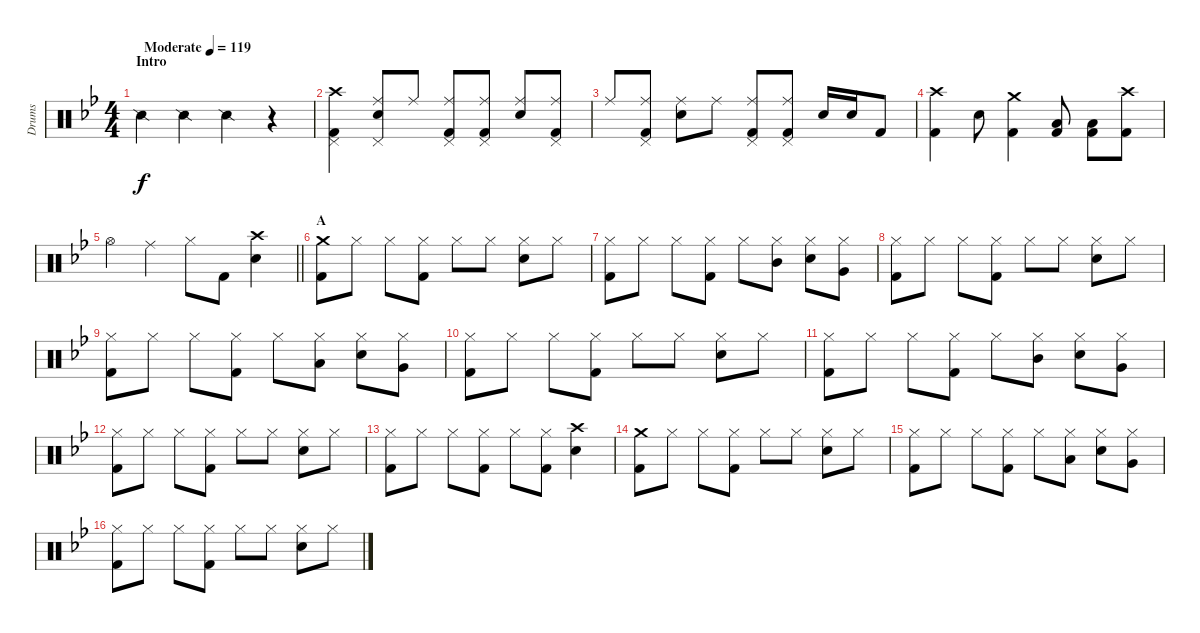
\track ("Drums" "Drums") {instrument percussion}
\staff {score}
\articulation defaults
\ts (4 4)
\section ("" "Intro")
\tempo (119 "Moderate")
\clef neutral
\ks bb "Snare (side stick) 2".4{dy f} "Snare (side stick) 2".4 "Snare (side stick) 2".4
r.4 |
("Crash high (hit)" "Pedal Hi-Hat (hit)" "Kick (hit) 2").4 ("Ride (middle)" "Pedal Hi-Hat (hit)" "Snare (hit) 2").8 "Ride (middle)".8 ("Ride (middle)" "Pedal Hi-Hat (hit)" "Kick (hit) 2").8 ("Ride (middle)" "Pedal Hi-Hat (hit)" "Kick (hit) 2").8 ("Ride (middle)" "Snare (hit) 2").8 ("Ride (middle)" "Pedal Hi-Hat (hit)" "Kick (hit) 2").8 |
"Ride (middle)".8 ("Ride (middle)" "Pedal Hi-Hat (hit)" "Kick (hit) 2").8 ("Ride (middle)" "Snare (hit) 2").8 "Ride (middle)".8 ("Ride (middle)" "Pedal Hi-Hat (hit)" "Kick (hit) 2").8 ("Ride (middle)" "Pedal Hi-Hat (hit)" "Kick (hit) 2").8 "Snare (hit) 2".16 "Snare (hit) 2".16 "Kick (hit) 2".8 |
("Crash high (hit)" "Kick (hit) 2").4 "Snare (hit) 2".8 ("Crash medium (hit)" "Kick (hit) 2").4 ("Low Tom (hit)" "Kick (hit) 2").8 ("Low Tom (hit)" "Kick (hit) 2").8 ("Crash high (hit)" "Kick (hit) 2").8 |
\barLineRight lightlight "Hi-Hat (open)".4 "Ride (middle)".4 "Hi-Hat (closed)".8 "Kick (hit) 2".8
("Crash high (hit)" "Snare (hit) 2").4 |
\section ("" "A")
("Crash medium (hit)" "Kick (hit) 2").8 "Hi-Hat (closed)".8 "Hi-Hat (closed)".8 ("Hi-Hat (closed)" "Kick (hit) 2").8 "Hi-Hat (closed)".8 "Hi-Hat (closed)".8 ("Hi-Hat (closed)" "Snare (hit) 2").8 "Hi-Hat (closed)".8 |
("Hi-Hat (closed)" "Kick (hit) 2").8 "Hi-Hat (closed)".8 "Hi-Hat (closed)".8 ("Hi-Hat (closed)" "Kick (hit) 2").8 "Hi-Hat (closed)".8 ("Mid Tom (hit)" "Hi-Hat (closed)").8 ("Hi-Hat (closed)" "Snare (hit) 2").8 ("Very Low Tom (hit)" "Hi-Hat (closed)").8 |
("Hi-Hat (closed)" "Kick (hit) 2").8 "Hi-Hat (closed)".8 "Hi-Hat (closed)".8 ("Hi-Hat (closed)" "Kick (hit) 2").8 "Hi-Hat (closed)".8 "Hi-Hat (closed)".8 ("Hi-Hat (closed)" "Snare (hit) 2").8 "Hi-Hat (closed)".8 |
("Hi-Hat (closed)" "Kick (hit) 2").8 "Hi-Hat (closed)".8 "Hi-Hat (closed)".8 ("Hi-Hat (closed)" "Kick (hit) 2").8 "Hi-Hat (closed)".8 ("Low Tom (hit)" "Hi-Hat (closed)").8 ("Hi-Hat (closed)" "Snare (hit) 2").8 ("Very Low Tom (hit)" "Hi-Hat (closed)").8 |
("Hi-Hat (closed)" "Kick (hit) 2").8 "Hi-Hat (closed)".8 "Hi-Hat (closed)".8 ("Hi-Hat (closed)" "Kick (hit) 2").8 "Hi-Hat (closed)".8 "Hi-Hat (closed)".8 ("Hi-Hat (closed)" "Snare (hit) 2").8 "Hi-Hat (closed)".8 |
("Hi-Hat (closed)" "Kick (hit) 2").8 "Hi-Hat (closed)".8 "Hi-Hat (closed)".8 ("Hi-Hat (closed)" "Kick (hit) 2").8 "Hi-Hat (closed)".8 ("Mid Tom (hit)" "Hi-Hat (closed)").8 ("Hi-Hat (closed)" "Snare (hit) 2").8 ("Very Low Tom (hit)" "Hi-Hat (closed)").8 |
("Hi-Hat (closed)" "Kick (hit) 2").8 "Hi-Hat (closed)".8 "Hi-Hat (closed)".8 ("Hi-Hat (closed)" "Kick (hit) 2").8 "Hi-Hat (closed)".8 "Hi-Hat (closed)".8 ("Hi-Hat (closed)" "Snare (hit) 2").8 "Hi-Hat (closed)".8 |
("Hi-Hat (closed)" "Kick (hit) 2").8 "Hi-Hat (closed)".8 "Hi-Hat (closed)".8 ("Hi-Hat (closed)" "Kick (hit) 2").8 "Hi-Hat (closed)".8 ("Hi-Hat (closed)" "Kick (hit) 2").8 ("Crash high (hit)" "Snare (hit) 2").4 |
("Crash medium (hit)" "Kick (hit) 2").8 "Hi-Hat (closed)".8 "Hi-Hat (closed)".8 ("Hi-Hat (closed)" "Kick (hit) 2").8 "Hi-Hat (closed)".8 "Hi-Hat (closed)".8 ("Hi-Hat (closed)" "Snare (hit) 2").8 "Hi-Hat (closed)".8 |
("Hi-Hat (closed)" "Kick (hit) 2").8 "Hi-Hat (closed)".8 "Hi-Hat (closed)".8 ("Hi-Hat (closed)" "Kick (hit) 2").8 "Hi-Hat (closed)".8 ("Low Tom (hit)" "Hi-Hat (closed)").8 ("Hi-Hat (closed)" "Snare (hit) 2").8 ("Very Low Tom (hit)" "Hi-Hat (closed)").8 |
("Hi-Hat (closed)" "Kick (hit) 2").8 "Hi-Hat (closed)".8 "Hi-Hat (closed)".8 ("Hi-Hat (closed)" "Kick (hit) 2").8 "Hi-Hat (closed)".8 "Hi-Hat (closed)".8 ("Hi-Hat (closed)" "Snare (hit) 2").8 "Hi-Hat (closed)".8
